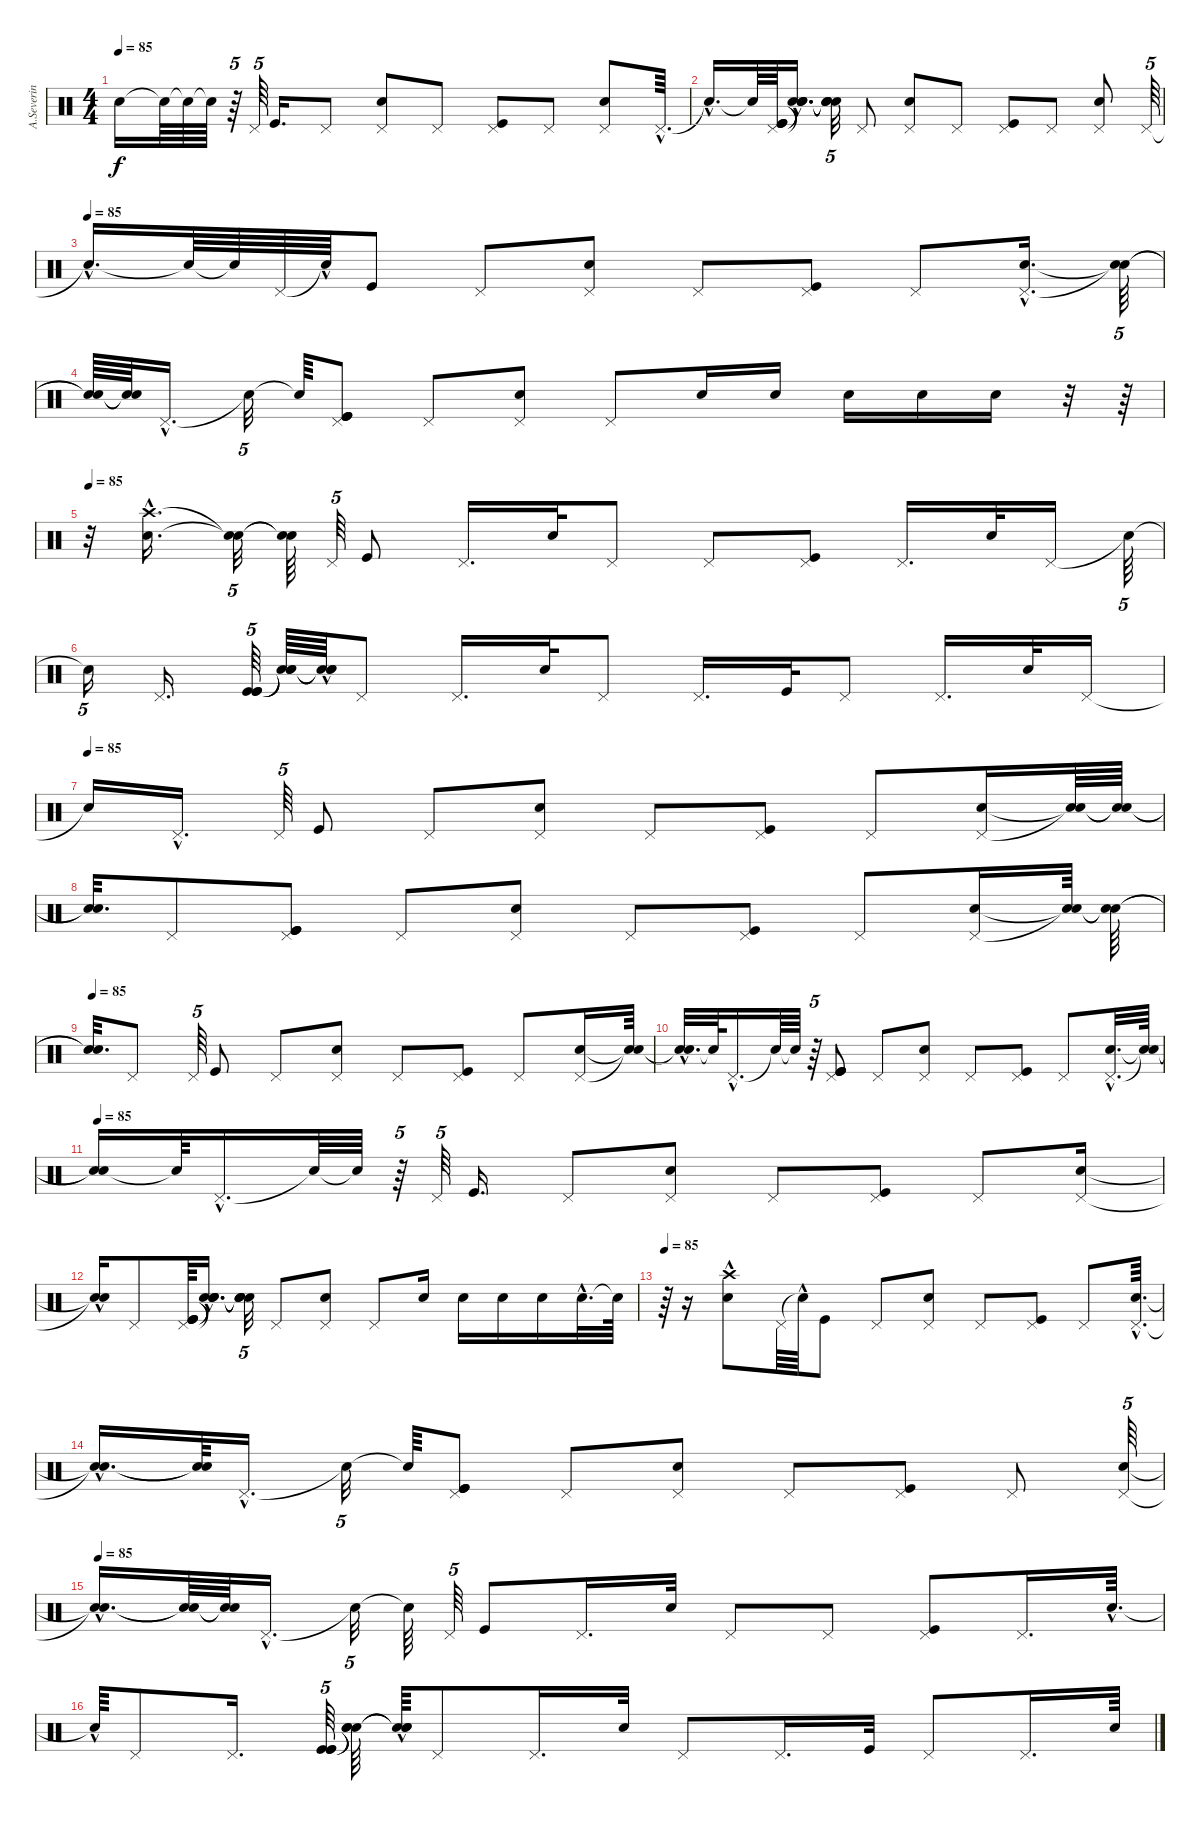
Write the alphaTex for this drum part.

\track ("A.Severin        Drums                  " "A.Severin ") {instrument percussion}
\staff {score}
\articulation defaults
\ts (4 4)
\tempo 85
\clef neutral
\ks c "Snare (hit)"{t}.16{dy f} "Snare (hit)"{t}.64 "Snare (hit)"{t}.64 "Snare (hit)"{t}.64
r.64{tu (5 4)} "Pedal Hi-Hat (hit)".64{tu (5 4)} "Kick (hit)".16{d} "Pedal Hi-Hat (hit)".8 ("Electric Snare (hit)" "Pedal Hi-Hat (hit)").8 "Pedal Hi-Hat (hit)".8 ("Kick (hit)" "Pedal Hi-Hat (hit)").8 "Pedal Hi-Hat (hit)".8 ("Electric Snare (hit)" "Pedal Hi-Hat (hit)").8 "Pedal Hi-Hat (hit)"{hac}.64{d} |
"Snare (hit)"{hac t}.16{d} "Snare (hit)"{t}.64 ("Kick (hit)" "Kick (hit)" "Kick (hit)" "Pedal Hi-Hat (hit)").64 ("Snare (hit)"{hac t} "Snare (hit)"{hac t} "Snare (hit)"{hac t} "Snare (hit)"{hac t}).16{d} ("Snare (hit)"{t} "Snare (hit)"{t} "Snare (hit)"{t} "Snare (hit)"{t}).32{tu (5 4)} "Pedal Hi-Hat (hit)".8 ("Electric Snare (hit)" "Pedal Hi-Hat (hit)").8 "Pedal Hi-Hat (hit)".8 ("Kick (hit)" "Pedal Hi-Hat (hit)").8 "Pedal Hi-Hat (hit)".8 ("Electric Snare (hit)" "Pedal Hi-Hat (hit)").8 "Pedal Hi-Hat (hit)".64{tu (5 4)} |
\tempo (85)
"Snare (hit)"{hac t}.16{d} "Snare (hit)"{t}.64 "Snare (hit)"{t}.64 "Pedal Hi-Hat (hit)".64 "Snare (hit)"{hac t}.64 "Kick (hit)".8 "Pedal Hi-Hat (hit)".8 ("Electric Snare (hit)" "Pedal Hi-Hat (hit)").8 "Pedal Hi-Hat (hit)".8 ("Kick (hit)" "Pedal Hi-Hat (hit)").8 "Pedal Hi-Hat (hit)".8 ("Electric Snare (hit)"{hac} "Pedal Hi-Hat (hit)"{hac}).16{d} ("Snare (hit)"{t} "Snare (hit)"{t}).64{tu (5 4)} |
("Snare (hit)"{t} "Snare (hit)"{t}).64 ("Snare (hit)"{t} "Snare (hit)"{t}).64 "Pedal Hi-Hat (hit)"{hac}.16{d} "Snare (hit)"{t}.32{tu (5 4)} "Snare (hit)"{t}.64 ("Kick (hit)" "Kick (hit)" "Kick (hit)" "Pedal Hi-Hat (hit)").8 "Pedal Hi-Hat (hit)".8 ("Electric Snare (hit)" "Pedal Hi-Hat (hit)").8 "Pedal Hi-Hat (hit)".8 "Electric Snare (hit)".16 "Electric Snare (hit)".16 "Electric Snare (hit)".16 "Electric Snare (hit)".16 "Electric Snare (hit)".16 r.32 r.64 |
\tempo 85
r.32 ("Electric Snare (hit)"{hac} "Crash high (hit)"{hac}).16{d} ("Snare (hit)"{t} "Snare (hit)"{t}).32{tu (5 4)} ("Snare (hit)"{t} "Snare (hit)"{t}).64 "Pedal Hi-Hat (hit)".64{tu (5 4)} "Kick (hit)".8 "Pedal Hi-Hat (hit)".16{d} "Electric Snare (hit)".32 "Pedal Hi-Hat (hit)".8 "Pedal Hi-Hat (hit)".8 ("Kick (hit)" "Pedal Hi-Hat (hit)").8 "Pedal Hi-Hat (hit)".16{d} "Electric Snare (hit)".32 "Pedal Hi-Hat (hit)".16 "Snare (hit)"{t}.64{tu (5 4)} |
"Snare (hit)"{t}.16{tu (5 4)} "Pedal Hi-Hat (hit)".16{d} ("Kick (hit)" "Kick (hit)" "Kick (hit)").64{tu (5 4)} ("Snare (hit)"{t} "Snare (hit)"{t} "Snare (hit)"{t}).64 ("Snare (hit)"{hac t} "Snare (hit)"{hac t} "Snare (hit)"{hac t}).64 "Pedal Hi-Hat (hit)".8 "Pedal Hi-Hat (hit)".16{d} "Electric Snare (hit)".32 "Pedal Hi-Hat (hit)".8 "Pedal Hi-Hat (hit)".16{d} "Kick (hit)".32 "Pedal Hi-Hat (hit)".8 "Pedal Hi-Hat (hit)".16{d} "Electric Snare (hit)".32 "Pedal Hi-Hat (hit)".16 |
\tempo (85)
"Snare (hit)"{t}.16 "Pedal Hi-Hat (hit)"{hac}.16{d} "Pedal Hi-Hat (hit)".64{tu (5 4)} "Kick (hit)".8 "Pedal Hi-Hat (hit)".8 ("Electric Snare (hit)" "Pedal Hi-Hat (hit)").8 "Pedal Hi-Hat (hit)".8 ("Pedal Hi-Hat (hit)" "Kick (hit)").8 "Pedal Hi-Hat (hit)".8 ("Electric Snare (hit)" "Pedal Hi-Hat (hit)").16 ("Snare (hit)"{t} "Snare (hit)"{t}).64 ("Snare (hit)"{t} "Snare (hit)"{t}).64 |
("Snare (hit)"{t} "Snare (hit)"{t}).32{d} "Pedal Hi-Hat (hit)".8 ("Kick (hit)" "Kick (hit)" "Kick (hit)" "Pedal Hi-Hat (hit)").8 "Pedal Hi-Hat (hit)".8 ("Electric Snare (hit)" "Pedal Hi-Hat (hit)").8 "Pedal Hi-Hat (hit)".8 ("Kick (hit)" "Pedal Hi-Hat (hit)").8 "Pedal Hi-Hat (hit)".8 ("Electric Snare (hit)" "Pedal Hi-Hat (hit)").16 ("Snare (hit)"{t} "Snare (hit)"{t}).64 ("Snare (hit)"{t} "Snare (hit)"{t}).64 |
\tempo 85
("Snare (hit)"{t} "Snare (hit)"{t}).32{d} "Pedal Hi-Hat (hit)".8 "Pedal Hi-Hat (hit)".64{tu (5 4)} "Kick (hit)".8 "Pedal Hi-Hat (hit)".8 ("Electric Snare (hit)" "Pedal Hi-Hat (hit)").8 "Pedal Hi-Hat (hit)".8 ("Pedal Hi-Hat (hit)" "Kick (hit)").8 "Pedal Hi-Hat (hit)".8 ("Electric Snare (hit)" "Pedal Hi-Hat (hit)").16 ("Snare (hit)"{t} "Snare (hit)"{t}).64 |
("Snare (hit)"{hac t} "Snare (hit)"{hac t}).32{d} "Snare (hit)"{t}.64 "Pedal Hi-Hat (hit)"{hac}.16{d} "Snare (hit)"{t}.64 "Snare (hit)"{t}.64 r.64{tu (5 4)} ("Kick (hit)" "Kick (hit)" "Kick (hit)" "Pedal Hi-Hat (hit)").8 "Pedal Hi-Hat (hit)".8 ("Electric Snare (hit)" "Pedal Hi-Hat (hit)").8 "Pedal Hi-Hat (hit)".8 ("Kick (hit)" "Pedal Hi-Hat (hit)").8 "Pedal Hi-Hat (hit)".8 ("Electric Snare (hit)"{hac} "Pedal Hi-Hat (hit)"{hac}).32{d} ("Snare (hit)"{t} "Snare (hit)"{t}).64 |
\tempo 85
("Snare (hit)"{t} "Snare (hit)"{t}).16 "Snare (hit)"{t}.64 "Pedal Hi-Hat (hit)"{hac}.16{d} "Snare (hit)"{t}.64 "Snare (hit)"{t}.64 r.64{tu (5 4)} "Pedal Hi-Hat (hit)".64{tu (5 4)} "Kick (hit)".16{d} "Pedal Hi-Hat (hit)".8 ("Electric Snare (hit)" "Pedal Hi-Hat (hit)").8 "Pedal Hi-Hat (hit)".8 ("Kick (hit)" "Pedal Hi-Hat (hit)").8 "Pedal Hi-Hat (hit)".8 ("Electric Snare (hit)" "Pedal Hi-Hat (hit)").16 |
("Snare (hit)"{hac t} "Snare (hit)"{t}).16 "Pedal Hi-Hat (hit)".8 ("Kick (hit)" "Kick (hit)" "Kick (hit)" "Pedal Hi-Hat (hit)").64 ("Snare (hit)"{hac t} "Snare (hit)"{hac t} "Snare (hit)"{hac t} "Snare (hit)"{hac t}).16{d} ("Snare (hit)"{t} "Snare (hit)"{t} "Snare (hit)"{t} "Snare (hit)"{t}).32{tu (5 4)} "Pedal Hi-Hat (hit)".8 ("Electric Snare (hit)" "Pedal Hi-Hat (hit)").8 "Pedal Hi-Hat (hit)".8 "Electric Snare (hit)".16 "Electric Snare (hit)".16 "Electric Snare (hit)".16 "Electric Snare (hit)".16 "Electric Snare (hit)"{hac}.32{d} "Snare (hit)"{t}.64 |
\tempo 85
r.64 r.16 ("Electric Snare (hit)" "Crash high (hit)"{hac}).8 "Pedal Hi-Hat (hit)".64 "Snare (hit)"{hac t}.64 "Kick (hit)".8 "Pedal Hi-Hat (hit)".8 ("Electric Snare (hit)" "Pedal Hi-Hat (hit)").8 "Pedal Hi-Hat (hit)".8 ("Pedal Hi-Hat (hit)" "Kick (hit)").8 "Pedal Hi-Hat (hit)".8 ("Electric Snare (hit)"{hac} "Pedal Hi-Hat (hit)"{hac}).64{d} |
("Snare (hit)"{hac t} "Snare (hit)"{hac t}).16{d} ("Snare (hit)"{t} "Snare (hit)"{t}).64 "Pedal Hi-Hat (hit)"{hac}.16{d} "Snare (hit)"{t}.32{tu (5 4)} "Snare (hit)"{t}.64 ("Kick (hit)" "Kick (hit)" "Kick (hit)" "Pedal Hi-Hat (hit)").8 "Pedal Hi-Hat (hit)".8 ("Electric Snare (hit)" "Pedal Hi-Hat (hit)").8 "Pedal Hi-Hat (hit)".8 ("Kick (hit)" "Pedal Hi-Hat (hit)").8 "Pedal Hi-Hat (hit)".8 ("Electric Snare (hit)" "Pedal Hi-Hat (hit)").64{tu (5 4)} |
\tempo 85
("Snare (hit)"{hac t} "Snare (hit)"{hac t}).16{d} ("Snare (hit)"{t} "Snare (hit)"{t}).64 ("Snare (hit)"{t} "Snare (hit)"{t}).64 "Pedal Hi-Hat (hit)"{hac}.16{d} "Snare (hit)"{t}.32{tu (5 4)} "Snare (hit)"{t}.64 "Pedal Hi-Hat (hit)".64{tu (5 4)} "Kick (hit)".8 "Pedal Hi-Hat (hit)".16{d} "Electric Snare (hit)".32 "Pedal Hi-Hat (hit)".8 "Pedal Hi-Hat (hit)".8 ("Kick (hit)" "Pedal Hi-Hat (hit)").8 "Pedal Hi-Hat (hit)".16{d} "Electric Snare (hit)"{hac}.64{d} |
"Snare (hit)"{hac t}.64 "Pedal Hi-Hat (hit)".8 "Pedal Hi-Hat (hit)".16{d} ("Kick (hit)" "Kick (hit)" "Kick (hit)").64{tu (5 4)} ("Snare (hit)"{t} "Snare (hit)"{t} "Snare (hit)"{t}).64 ("Snare (hit)"{hac t} "Snare (hit)"{hac t} "Snare (hit)"{hac t}).64 "Pedal Hi-Hat (hit)".8 "Pedal Hi-Hat (hit)".16{d} "Electric Snare (hit)".32 "Pedal Hi-Hat (hit)".8 "Pedal Hi-Hat (hit)".16{d} "Kick (hit)".32 "Pedal Hi-Hat (hit)".8 "Pedal Hi-Hat (hit)".16{d} "Electric Snare (hit)".64
